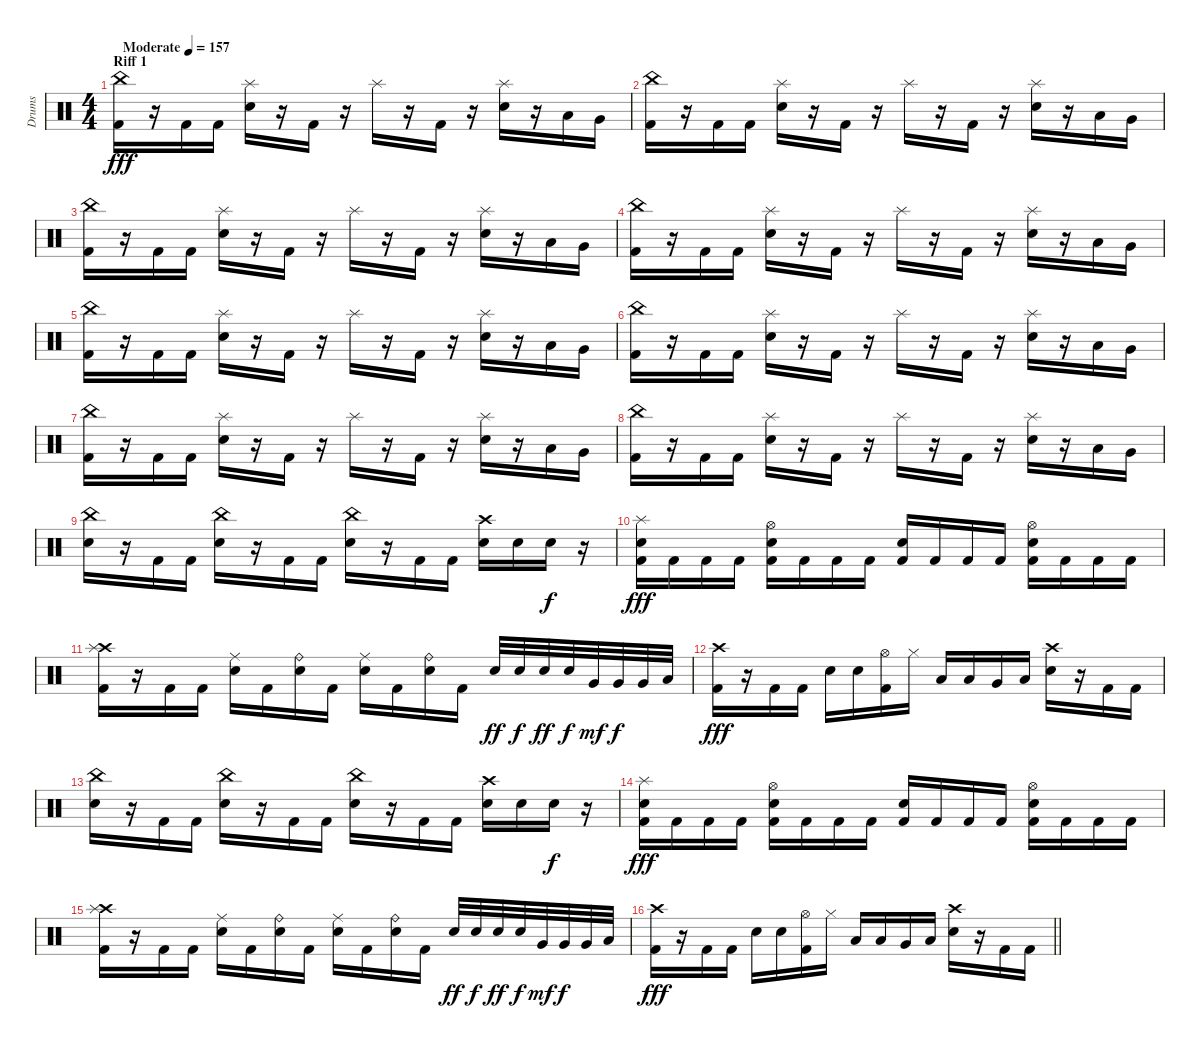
\track ("Drums" "Drums") {instrument percussion}
\staff {score}
\articulation defaults
\ts (4 4)
\section ("" "Riff 1")
\tempo (157 "Moderate")
\clef neutral
\ks c
("Kick (hit) 2" "China (hit)").16{dy fff} r.16 "Kick (hit) 2".16 "Kick (hit) 2".16 ("Snare (hit) 2" "Splash (hit)").16 r.16 "Kick (hit) 2".16 r.16 "Splash (hit)".16 r.16 "Kick (hit) 2".16 r.16 ("Snare (hit) 2" "Splash (hit)").16 r.16 "Low Tom (hit)".16 "Very Low Tom (hit)".16 |
("Kick (hit) 2" "China (hit)").16 r.16 "Kick (hit) 2".16 "Kick (hit) 2".16 ("Snare (hit) 2" "Splash (hit)").16 r.16 "Kick (hit) 2".16 r.16 "Splash (hit)".16 r.16 "Kick (hit) 2".16 r.16 ("Snare (hit) 2" "Splash (hit)").16 r.16 "Low Tom (hit)".16 "Very Low Tom (hit)".16 |
("Kick (hit) 2" "China (hit)").16 r.16 "Kick (hit) 2".16 "Kick (hit) 2".16 ("Snare (hit) 2" "Splash (hit)").16 r.16 "Kick (hit) 2".16 r.16 "Splash (hit)".16 r.16 "Kick (hit) 2".16 r.16 ("Snare (hit) 2" "Splash (hit)").16 r.16 "Low Tom (hit)".16 "Very Low Tom (hit)".16 |
("Kick (hit) 2" "China (hit)").16 r.16 "Kick (hit) 2".16 "Kick (hit) 2".16 ("Snare (hit) 2" "Splash (hit)").16 r.16 "Kick (hit) 2".16 r.16 "Splash (hit)".16 r.16 "Kick (hit) 2".16 r.16 ("Snare (hit) 2" "Splash (hit)").16 r.16 "Low Tom (hit)".16 "Very Low Tom (hit)".16 |
("Kick (hit) 2" "China (hit)").16 r.16 "Kick (hit) 2".16 "Kick (hit) 2".16 ("Snare (hit) 2" "Splash (hit)").16 r.16 "Kick (hit) 2".16 r.16 "Splash (hit)".16 r.16 "Kick (hit) 2".16 r.16 ("Snare (hit) 2" "Splash (hit)").16 r.16 "Low Tom (hit)".16 "Very Low Tom (hit)".16 |
("Kick (hit) 2" "China (hit)").16 r.16 "Kick (hit) 2".16 "Kick (hit) 2".16 ("Snare (hit) 2" "Splash (hit)").16 r.16 "Kick (hit) 2".16 r.16 "Splash (hit)".16 r.16 "Kick (hit) 2".16 r.16 ("Snare (hit) 2" "Splash (hit)").16 r.16 "Low Tom (hit)".16 "Very Low Tom (hit)".16 |
("Kick (hit) 2" "China (hit)").16 r.16 "Kick (hit) 2".16 "Kick (hit) 2".16 ("Snare (hit) 2" "Splash (hit)").16 r.16 "Kick (hit) 2".16 r.16 "Splash (hit)".16 r.16 "Kick (hit) 2".16 r.16 ("Snare (hit) 2" "Splash (hit)").16 r.16 "Low Tom (hit)".16 "Very Low Tom (hit)".16 |
("Kick (hit) 2" "China (hit)").16 r.16 "Kick (hit) 2".16 "Kick (hit) 2".16 ("Snare (hit) 2" "Splash (hit)").16 r.16 "Kick (hit) 2".16 r.16 "Splash (hit)".16 r.16 "Kick (hit) 2".16 r.16 ("Snare (hit) 2" "Splash (hit)").16 r.16 "Low Tom (hit)".16 "Very Low Tom (hit)".16 |
("Snare (hit) 2" "China (hit)").16 r.16 "Kick (hit) 2".16 "Kick (hit) 2".16 ("Snare (hit) 2" "China (hit)").16 r.16 "Kick (hit) 2".16 "Kick (hit) 2".16 ("Snare (hit) 2" "China (hit)").16 r.16 "Kick (hit) 2".16 "Kick (hit) 2".16 ("Snare (hit) 2" "Crash high (hit)").16 "Snare (hit) 2".16 "Snare (hit) 2".16{dy f} r.16 |
("Kick (hit) 2" "Snare (hit) 2" "Splash (hit)").16{dy fff} "Kick (hit) 2".16 "Kick (hit) 2".16 "Kick (hit) 2".16 ("Kick (hit) 2" "Snare (hit) 2" "Hi-Hat (open)").16 "Kick (hit) 2".16 "Kick (hit) 2".16 "Kick (hit) 2".16 ("Kick (hit) 2" "Snare (hit) 2").16 "Kick (hit) 2".16 "Kick (hit) 2".16 "Kick (hit) 2".16 ("Kick (hit) 2" "Snare (hit) 2" "Hi-Hat (open)").16 "Kick (hit) 2".16 "Kick (hit) 2".16 "Kick (hit) 2".16 |
("Kick (hit) 2" "Crash high (hit)" "Splash (hit)").16 r.16 "Kick (hit) 2".16 "Kick (hit) 2".16 ("Snare (hit) 2" "Ride (middle)").16 "Kick (hit) 2".16 ("Snare (hit) 2" "Ride (bell)").16 "Kick (hit) 2".16 ("Snare (hit) 2" "Ride (middle)").16 "Kick (hit) 2".16 ("Snare (hit) 2" "Ride (bell)").16 "Kick (hit) 2".16 "Snare (hit) 2".32{dy ff} "Snare (hit) 2".32{dy f} "Snare (hit) 2".32{dy ff} "Snare (hit) 2".32{dy f} "Very Low Tom (hit)".32{dy mf} "Very Low Tom (hit)".32{dy f} "Very Low Tom (hit)".32 "Low Floor Tom (hit)".32 |
("Kick (hit) 2" "Crash high (hit)").16{dy fff} r.16 "Kick (hit) 2".16 "Kick (hit) 2".16 "Snare (hit) 2".16 "Snare (hit) 2".16 ("Kick (hit) 2" "Hi-Hat (open)").16 "Hi-Hat (closed)".16 "Low Tom (hit)".16 "Low Tom (hit)".16 "Very Low Tom (hit)".16 "Low Floor Tom (hit)".16 ("Snare (hit) 2" "Crash high (hit)").16 r.16 "Kick (hit) 2".16 "Kick (hit) 2".16 |
("Snare (hit) 2" "China (hit)").16 r.16 "Kick (hit) 2".16 "Kick (hit) 2".16 ("Snare (hit) 2" "China (hit)").16 r.16 "Kick (hit) 2".16 "Kick (hit) 2".16 ("Snare (hit) 2" "China (hit)").16 r.16 "Kick (hit) 2".16 "Kick (hit) 2".16 ("Snare (hit) 2" "Crash high (hit)").16 "Snare (hit) 2".16 "Snare (hit) 2".16{dy f} r.16 |
("Kick (hit) 2" "Snare (hit) 2" "Splash (hit)").16{dy fff} "Kick (hit) 2".16 "Kick (hit) 2".16 "Kick (hit) 2".16 ("Kick (hit) 2" "Snare (hit) 2" "Hi-Hat (open)").16 "Kick (hit) 2".16 "Kick (hit) 2".16 "Kick (hit) 2".16 ("Kick (hit) 2" "Snare (hit) 2").16 "Kick (hit) 2".16 "Kick (hit) 2".16 "Kick (hit) 2".16 ("Kick (hit) 2" "Snare (hit) 2" "Hi-Hat (open)").16 "Kick (hit) 2".16 "Kick (hit) 2".16 "Kick (hit) 2".16 |
("Kick (hit) 2" "Crash high (hit)" "Splash (hit)").16 r.16 "Kick (hit) 2".16 "Kick (hit) 2".16 ("Snare (hit) 2" "Ride (middle)").16 "Kick (hit) 2".16 ("Snare (hit) 2" "Ride (bell)").16 "Kick (hit) 2".16 ("Snare (hit) 2" "Ride (middle)").16 "Kick (hit) 2".16 ("Snare (hit) 2" "Ride (bell)").16 "Kick (hit) 2".16 "Snare (hit) 2".32{dy ff} "Snare (hit) 2".32{dy f} "Snare (hit) 2".32{dy ff} "Snare (hit) 2".32{dy f} "Very Low Tom (hit)".32{dy mf} "Very Low Tom (hit)".32{dy f} "Very Low Tom (hit)".32 "Low Floor Tom (hit)".32 |
\barLineRight lightlight
("Kick (hit) 2" "Crash high (hit)").16{dy fff} r.16 "Kick (hit) 2".16 "Kick (hit) 2".16 "Snare (hit) 2".16 "Snare (hit) 2".16 ("Kick (hit) 2" "Hi-Hat (open)").16 "Hi-Hat (closed)".16 "Low Tom (hit)".16 "Low Tom (hit)".16 "Very Low Tom (hit)".16 "Low Floor Tom (hit)".16 ("Snare (hit) 2" "Crash high (hit)").16 r.16 "Kick (hit) 2".16 "Kick (hit) 2".16
